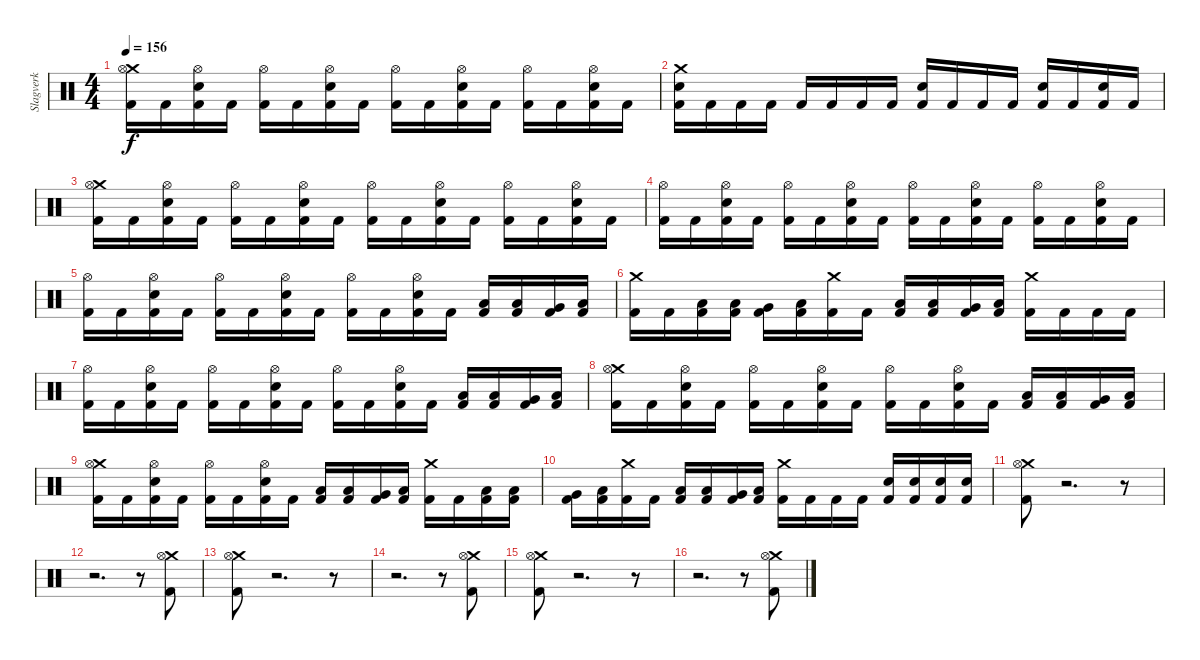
\track ("Slagverk" "Slagverk") {instrument percussion}
\staff {score}
\articulation defaults
\ts (4 4)
\tempo 156
\clef neutral
\ks c
("Crash medium (hit)" "Hi-Hat (open)" "Kick (hit) 2").16{dy f} "Kick (hit) 2".16 ("Snare (hit) 2" "Hi-Hat (open)" "Kick (hit) 2").16 "Kick (hit) 2".16 ("Hi-Hat (open)" "Kick (hit) 2").16 "Kick (hit) 2".16 ("Snare (hit) 2" "Hi-Hat (open)" "Kick (hit) 2").16 "Kick (hit) 2".16 ("Hi-Hat (open)" "Kick (hit) 2").16 "Kick (hit) 2".16 ("Snare (hit) 2" "Hi-Hat (open)" "Kick (hit) 2").16 "Kick (hit) 2".16 ("Hi-Hat (open)" "Kick (hit) 2").16 "Kick (hit) 2".16 ("Snare (hit) 2" "Hi-Hat (open)" "Kick (hit) 2").16 "Kick (hit) 2".16 |
("Crash medium (hit)" "Snare (hit) 2" "Kick (hit) 2").16 "Kick (hit) 2".16 "Kick (hit) 2".16 "Kick (hit) 2".16 "Kick (hit) 2".16 "Kick (hit) 2".16 "Kick (hit) 2".16 "Kick (hit) 2".16 ("Snare (hit) 2" "Kick (hit) 2").16 "Kick (hit) 2".16 "Kick (hit) 2".16 "Kick (hit) 2".16 ("Kick (hit) 2" "Snare (hit) 2").16 "Kick (hit) 2".16 ("Snare (hit) 2" "Kick (hit) 2").16 "Kick (hit) 2".16 |
("Crash medium (hit)" "Hi-Hat (open)" "Kick (hit) 2").16 "Kick (hit) 2".16 ("Snare (hit) 2" "Hi-Hat (open)" "Kick (hit) 2").16 "Kick (hit) 2".16 ("Hi-Hat (open)" "Kick (hit) 2").16 "Kick (hit) 2".16 ("Snare (hit) 2" "Hi-Hat (open)" "Kick (hit) 2").16 "Kick (hit) 2".16 ("Hi-Hat (open)" "Kick (hit) 2").16 "Kick (hit) 2".16 ("Snare (hit) 2" "Hi-Hat (open)" "Kick (hit) 2").16 "Kick (hit) 2".16 ("Hi-Hat (open)" "Kick (hit) 2").16 "Kick (hit) 2".16 ("Snare (hit) 2" "Hi-Hat (open)" "Kick (hit) 2").16 "Kick (hit) 2".16 |
("Hi-Hat (open)" "Kick (hit) 2").16 "Kick (hit) 2".16 ("Snare (hit) 2" "Hi-Hat (open)" "Kick (hit) 2").16 "Kick (hit) 2".16 ("Hi-Hat (open)" "Kick (hit) 2").16 "Kick (hit) 2".16 ("Snare (hit) 2" "Hi-Hat (open)" "Kick (hit) 2").16 "Kick (hit) 2".16 ("Hi-Hat (open)" "Kick (hit) 2").16 "Kick (hit) 2".16 ("Snare (hit) 2" "Hi-Hat (open)" "Kick (hit) 2").16 "Kick (hit) 2".16 ("Hi-Hat (open)" "Kick (hit) 2").16 "Kick (hit) 2".16 ("Snare (hit) 2" "Hi-Hat (open)" "Kick (hit) 2").16 "Kick (hit) 2".16 |
("Hi-Hat (open)" "Kick (hit) 2").16 "Kick (hit) 2".16 ("Snare (hit) 2" "Hi-Hat (open)" "Kick (hit) 2").16 "Kick (hit) 2".16 ("Hi-Hat (open)" "Kick (hit) 2").16 "Kick (hit) 2".16 ("Snare (hit) 2" "Hi-Hat (open)" "Kick (hit) 2").16 "Kick (hit) 2".16 ("Hi-Hat (open)" "Kick (hit) 2").16 "Kick (hit) 2".16 ("Snare (hit) 2" "Hi-Hat (open)" "Kick (hit) 2").16 "Kick (hit) 2".16 ("Low Tom (hit)" "Kick (hit) 2").16 ("Low Tom (hit)" "Kick (hit) 2").16 ("Very Low Tom (hit)" "Kick (hit) 2").16 ("Low Floor Tom (hit)" "Kick (hit) 2").16 |
("Crash medium (hit)" "Kick (hit) 2").16 "Kick (hit) 2".16 ("Low Tom (hit)" "Kick (hit) 2").16 ("Low Tom (hit)" "Kick (hit) 2").16 ("Very Low Tom (hit)" "Kick (hit) 2").16 ("Low Floor Tom (hit)" "Kick (hit) 2").16 ("Crash medium (hit)" "Kick (hit) 2").16 "Kick (hit) 2".16 ("Low Tom (hit)" "Kick (hit) 2").16 ("Low Tom (hit)" "Kick (hit) 2").16 ("Very Low Tom (hit)" "Kick (hit) 2").16 ("Low Floor Tom (hit)" "Kick (hit) 2").16 ("Crash medium (hit)" "Kick (hit) 2").16 "Kick (hit) 2".16 "Kick (hit) 2".16 "Kick (hit) 2".16 |
("Hi-Hat (open)" "Kick (hit) 2").16 "Kick (hit) 2".16 ("Snare (hit) 2" "Hi-Hat (open)" "Kick (hit) 2").16 "Kick (hit) 2".16 ("Hi-Hat (open)" "Kick (hit) 2").16 "Kick (hit) 2".16 ("Snare (hit) 2" "Hi-Hat (open)" "Kick (hit) 2").16 "Kick (hit) 2".16 ("Hi-Hat (open)" "Kick (hit) 2").16 "Kick (hit) 2".16 ("Snare (hit) 2" "Hi-Hat (open)" "Kick (hit) 2").16 "Kick (hit) 2".16 ("Low Tom (hit)" "Kick (hit) 2").16 ("Low Tom (hit)" "Kick (hit) 2").16 ("Very Low Tom (hit)" "Kick (hit) 2").16 ("Low Floor Tom (hit)" "Kick (hit) 2").16 |
("Crash medium (hit)" "Hi-Hat (open)" "Kick (hit) 2").16 "Kick (hit) 2".16 ("Snare (hit) 2" "Hi-Hat (open)" "Kick (hit) 2").16 "Kick (hit) 2".16 ("Hi-Hat (open)" "Kick (hit) 2").16 "Kick (hit) 2".16 ("Snare (hit) 2" "Hi-Hat (open)" "Kick (hit) 2").16 "Kick (hit) 2".16 ("Hi-Hat (open)" "Kick (hit) 2").16 "Kick (hit) 2".16 ("Snare (hit) 2" "Hi-Hat (open)" "Kick (hit) 2").16 "Kick (hit) 2".16 ("Low Tom (hit)" "Kick (hit) 2").16 ("Low Tom (hit)" "Kick (hit) 2").16 ("Very Low Tom (hit)" "Kick (hit) 2").16 ("Low Floor Tom (hit)" "Kick (hit) 2").16 |
("Crash medium (hit)" "Hi-Hat (open)" "Kick (hit) 2").16 "Kick (hit) 2".16 ("Snare (hit) 2" "Hi-Hat (open)" "Kick (hit) 2").16 "Kick (hit) 2".16 ("Hi-Hat (open)" "Kick (hit) 2").16 "Kick (hit) 2".16 ("Snare (hit) 2" "Hi-Hat (open)" "Kick (hit) 2").16 "Kick (hit) 2".16 ("Low Tom (hit)" "Kick (hit) 2").16 ("Low Tom (hit)" "Kick (hit) 2").16 ("Very Low Tom (hit)" "Kick (hit) 2").16 ("Low Floor Tom (hit)" "Kick (hit) 2").16 ("Crash medium (hit)" "Kick (hit) 2").16 "Kick (hit) 2".16 ("Low Tom (hit)" "Kick (hit) 2").16 ("Low Tom (hit)" "Kick (hit) 2").16 |
("Very Low Tom (hit)" "Kick (hit) 2").16 ("Low Floor Tom (hit)" "Kick (hit) 2").16 ("Crash medium (hit)" "Kick (hit) 2").16 "Kick (hit) 2".16 ("Low Tom (hit)" "Kick (hit) 2").16 ("Low Tom (hit)" "Kick (hit) 2").16 ("Very Low Tom (hit)" "Kick (hit) 2").16 ("Low Floor Tom (hit)" "Kick (hit) 2").16 ("Crash medium (hit)" "Kick (hit) 2").16 "Kick (hit) 2".16 "Kick (hit) 2".16 "Kick (hit) 2".16 ("Snare (hit) 2" "Kick (hit) 2").16 ("Snare (hit) 2" "Kick (hit) 2").16 ("Snare (hit) 2" "Kick (hit) 2").16 ("Snare (hit) 2" "Kick (hit) 2").16 |
("Crash medium (hit)" "Hi-Hat (open)" "Kick (hit) 2").8 r.2{d} r.8 |
r.2{d} r.8 ("Crash medium (hit)" "Hi-Hat (open)" "Kick (hit) 2").8 |
("Crash medium (hit)" "Hi-Hat (open)" "Kick (hit) 2").8 r.2{d} r.8 |
r.2{d} r.8 ("Crash medium (hit)" "Hi-Hat (open)" "Kick (hit) 2").8 |
("Crash medium (hit)" "Hi-Hat (open)" "Kick (hit) 2").8 r.2{d} r.8 |
r.2{d} r.8 ("Crash medium (hit)" "Hi-Hat (open)" "Kick (hit) 2").8
